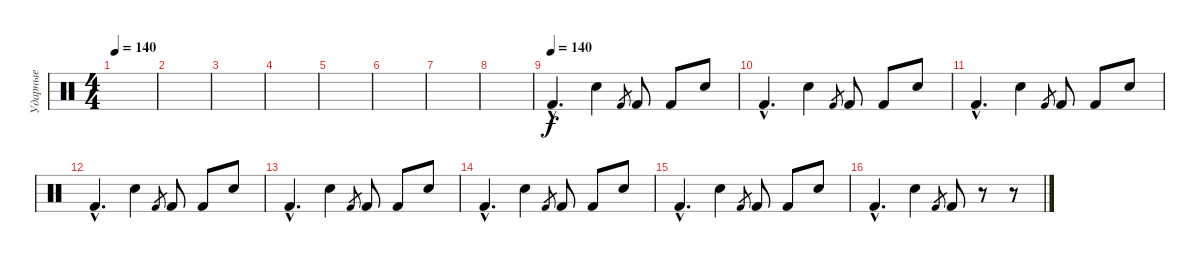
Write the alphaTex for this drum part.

\track ("Ударные" "Ударные") {instrument percussion}
\staff {score}
\articulation defaults
\ts (4 4)
\tempo 140
\clef neutral
\ks c
|
|
|
|
|
|
|
|
\tempo (140)
"Kick (hit) 2"{hac}.4{d} "Hand Clap (hit)".4 "Kick (hit) 2".8{gr} "Kick (hit) 2".8 "Kick (hit) 2".8 "Hand Clap (hit)".8 |
"Kick (hit) 2"{hac}.4{d} "Hand Clap (hit)".4 "Kick (hit) 2".8{gr} "Kick (hit) 2".8 "Kick (hit) 2".8 "Hand Clap (hit)".8 |
"Kick (hit) 2"{hac}.4{d} "Hand Clap (hit)".4 "Kick (hit) 2".8{gr} "Kick (hit) 2".8 "Kick (hit) 2".8 "Hand Clap (hit)".8 |
"Kick (hit) 2"{hac}.4{d} "Hand Clap (hit)".4 "Kick (hit) 2".8{gr} "Kick (hit) 2".8 "Kick (hit) 2".8 "Hand Clap (hit)".8 |
"Kick (hit) 2"{hac}.4{d} "Hand Clap (hit)".4 "Kick (hit) 2".8{gr} "Kick (hit) 2".8 "Kick (hit) 2".8 "Hand Clap (hit)".8 |
"Kick (hit) 2"{hac}.4{d} "Hand Clap (hit)".4 "Kick (hit) 2".8{gr} "Kick (hit) 2".8 "Kick (hit) 2".8 "Hand Clap (hit)".8 |
"Kick (hit) 2"{hac}.4{d} "Hand Clap (hit)".4 "Kick (hit) 2".8{gr} "Kick (hit) 2".8 "Kick (hit) 2".8 "Hand Clap (hit)".8 |
"Kick (hit) 2"{hac}.4{d} "Hand Clap (hit)".4 "Kick (hit) 2".8{gr} "Kick (hit) 2".8 r.8 r.8
